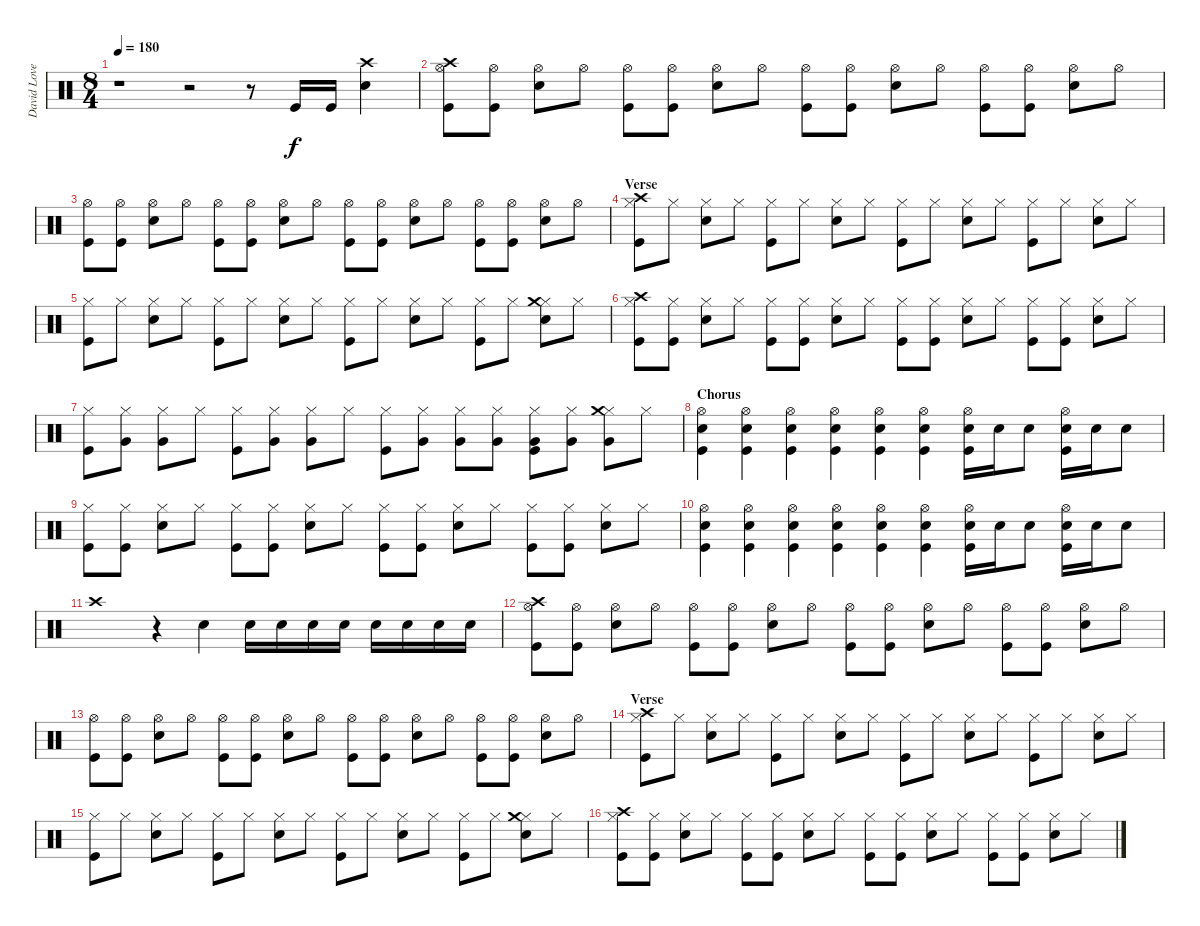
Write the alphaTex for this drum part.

\track ("David Lovering" "David Love") {instrument percussion}
\staff {score}
\articulation defaults
\ts (8 4)
\tempo 180
\clef neutral
\ks c
r.1{dy f} r.2 r.8 "Kick (hit)".16 "Kick (hit)".16 ("Crash high (hit)" "Snare (hit) 2").4 |
("Hi-Hat (open)" "Crash high (hit)" "Kick (hit)").8 ("Hi-Hat (open)" "Kick (hit)").8 ("Hi-Hat (open)" "Snare (hit) 2").8 "Hi-Hat (open)".8 ("Hi-Hat (open)" "Kick (hit)").8 ("Hi-Hat (open)" "Kick (hit)").8 ("Hi-Hat (open)" "Snare (hit) 2").8 "Hi-Hat (open)".8 ("Hi-Hat (open)" "Kick (hit)").8 ("Hi-Hat (open)" "Kick (hit)").8 ("Hi-Hat (open)" "Snare (hit) 2").8 "Hi-Hat (open)".8 ("Hi-Hat (open)" "Kick (hit)").8 ("Hi-Hat (open)" "Kick (hit)").8 ("Hi-Hat (open)" "Snare (hit) 2").8 "Hi-Hat (open)".8 |
("Hi-Hat (open)" "Kick (hit)").8 ("Hi-Hat (open)" "Kick (hit)").8 ("Hi-Hat (open)" "Snare (hit) 2").8 "Hi-Hat (open)".8 ("Hi-Hat (open)" "Kick (hit)").8 ("Hi-Hat (open)" "Kick (hit)").8 ("Hi-Hat (open)" "Snare (hit) 2").8 "Hi-Hat (open)".8 ("Hi-Hat (open)" "Kick (hit)").8 ("Hi-Hat (open)" "Kick (hit)").8 ("Hi-Hat (open)" "Snare (hit) 2").8 "Hi-Hat (open)".8 ("Hi-Hat (open)" "Kick (hit)").8 ("Hi-Hat (open)" "Kick (hit)").8 ("Hi-Hat (open)" "Snare (hit) 2").8 "Hi-Hat (open)".8 |
\section ("" "Verse")
("Hi-Hat (closed)" "Crash high (hit)" "Kick (hit)").8 "Hi-Hat (closed)".8 ("Hi-Hat (closed)" "Snare (hit) 2").8 "Hi-Hat (closed)".8 ("Hi-Hat (closed)" "Kick (hit)").8 "Hi-Hat (closed)".8 ("Hi-Hat (closed)" "Snare (hit) 2").8 "Hi-Hat (closed)".8 ("Hi-Hat (closed)" "Kick (hit)").8 "Hi-Hat (closed)".8 ("Hi-Hat (closed)" "Snare (hit) 2").8 "Hi-Hat (closed)".8 ("Hi-Hat (closed)" "Kick (hit)").8 "Hi-Hat (closed)".8 ("Hi-Hat (closed)" "Snare (hit) 2").8 "Hi-Hat (closed)".8 |
("Hi-Hat (closed)" "Kick (hit)").8 "Hi-Hat (closed)".8 ("Hi-Hat (closed)" "Snare (hit) 2").8 "Hi-Hat (closed)".8 ("Hi-Hat (closed)" "Kick (hit)").8 "Hi-Hat (closed)".8 ("Hi-Hat (closed)" "Snare (hit) 2").8 "Hi-Hat (closed)".8 ("Hi-Hat (closed)" "Kick (hit)").8 "Hi-Hat (closed)".8 ("Hi-Hat (closed)" "Snare (hit) 2").8 "Hi-Hat (closed)".8 ("Hi-Hat (closed)" "Kick (hit)").8 "Hi-Hat (closed)".8 ("Hi-Hat (closed)" "Crash medium (hit)" "Snare (hit) 2").8 "Hi-Hat (closed)".8 |
("Hi-Hat (closed)" "Crash high (hit)" "Kick (hit)").8 ("Hi-Hat (closed)" "Kick (hit)").8 ("Hi-Hat (closed)" "Snare (hit) 2").8 "Hi-Hat (closed)".8 ("Hi-Hat (closed)" "Kick (hit)").8 ("Hi-Hat (closed)" "Kick (hit)").8 ("Hi-Hat (closed)" "Snare (hit) 2").8 "Hi-Hat (closed)".8 ("Hi-Hat (closed)" "Kick (hit)").8 ("Hi-Hat (closed)" "Kick (hit)").8 ("Hi-Hat (closed)" "Snare (hit) 2").8 "Hi-Hat (closed)".8 ("Hi-Hat (closed)" "Kick (hit)").8 ("Hi-Hat (closed)" "Kick (hit)").8 ("Hi-Hat (closed)" "Snare (hit) 2").8 "Hi-Hat (closed)".8 |
("Hi-Hat (closed)" "Kick (hit)").8 ("Hi-Hat (closed)" "Very Low Tom (hit)").8 ("Hi-Hat (closed)" "Very Low Tom (hit)").8 "Hi-Hat (closed)".8 ("Hi-Hat (closed)" "Kick (hit)").8 ("Hi-Hat (closed)" "Very Low Tom (hit)").8 ("Hi-Hat (closed)" "Very Low Tom (hit)").8 "Hi-Hat (closed)".8 ("Hi-Hat (closed)" "Kick (hit)").8 ("Hi-Hat (closed)" "Very Low Tom (hit)").8 ("Hi-Hat (closed)" "Very Low Tom (hit)").8 ("Hi-Hat (closed)" "Very Low Tom (hit)").8 ("Hi-Hat (closed)" "Very Low Tom (hit)" "Kick (hit)").8 ("Hi-Hat (closed)" "Very Low Tom (hit)").8 ("Hi-Hat (closed)" "Crash medium (hit)" "Very Low Tom (hit)").8 "Hi-Hat (closed)".8 |
\section ("" "Chorus")
("Hi-Hat (open)" "Snare (hit) 2" "Kick (hit)").4 ("Hi-Hat (open)" "Snare (hit) 2" "Kick (hit)").4 ("Hi-Hat (open)" "Snare (hit) 2" "Kick (hit)").4 ("Hi-Hat (open)" "Snare (hit) 2" "Kick (hit)").4 ("Hi-Hat (open)" "Snare (hit) 2" "Kick (hit)").4 ("Hi-Hat (open)" "Snare (hit) 2" "Kick (hit)").4 ("Hi-Hat (open)" "Snare (hit) 2" "Kick (hit)").16 "Snare (hit) 2".16 "Snare (hit) 2".8 ("Hi-Hat (open)" "Snare (hit) 2" "Kick (hit)").16 "Snare (hit) 2".16 "Snare (hit) 2".8 |
("Hi-Hat (closed)" "Kick (hit)").8 ("Hi-Hat (closed)" "Kick (hit)").8 ("Hi-Hat (closed)" "Snare (hit) 2").8 "Hi-Hat (closed)".8 ("Hi-Hat (closed)" "Kick (hit)").8 ("Hi-Hat (closed)" "Kick (hit)").8 ("Hi-Hat (closed)" "Snare (hit) 2").8 "Hi-Hat (closed)".8 ("Hi-Hat (closed)" "Kick (hit)").8 ("Hi-Hat (closed)" "Kick (hit)").8 ("Hi-Hat (closed)" "Snare (hit) 2").8 "Hi-Hat (closed)".8 ("Hi-Hat (closed)" "Kick (hit)").8 ("Hi-Hat (closed)" "Kick (hit)").8 ("Hi-Hat (closed)" "Snare (hit) 2").8 "Hi-Hat (closed)".8 |
("Hi-Hat (open)" "Snare (hit) 2" "Kick (hit)").4 ("Hi-Hat (open)" "Snare (hit) 2" "Kick (hit)").4 ("Hi-Hat (open)" "Snare (hit) 2" "Kick (hit)").4 ("Hi-Hat (open)" "Snare (hit) 2" "Kick (hit)").4 ("Hi-Hat (open)" "Snare (hit) 2" "Kick (hit)").4 ("Hi-Hat (open)" "Snare (hit) 2" "Kick (hit)").4 ("Hi-Hat (open)" "Snare (hit) 2" "Kick (hit)").16 "Snare (hit) 2".16 "Snare (hit) 2".8 ("Hi-Hat (open)" "Snare (hit) 2" "Kick (hit)").16 "Snare (hit) 2".16 "Snare (hit) 2".8 |
"Crash high (hit)".1 r.4 "Snare (hit) 2".4 "Snare (hit) 2".16 "Snare (hit) 2".16 "Snare (hit) 2".16 "Snare (hit) 2".16 "Snare (hit) 2".16 "Snare (hit) 2".16 "Snare (hit) 2".16 "Snare (hit) 2".16 |
("Hi-Hat (open)" "Crash high (hit)" "Kick (hit)").8 ("Hi-Hat (open)" "Kick (hit)").8 ("Hi-Hat (open)" "Snare (hit) 2").8 "Hi-Hat (open)".8 ("Hi-Hat (open)" "Kick (hit)").8 ("Hi-Hat (open)" "Kick (hit)").8 ("Hi-Hat (open)" "Snare (hit) 2").8 "Hi-Hat (open)".8 ("Hi-Hat (open)" "Kick (hit)").8 ("Hi-Hat (open)" "Kick (hit)").8 ("Hi-Hat (open)" "Snare (hit) 2").8 "Hi-Hat (open)".8 ("Hi-Hat (open)" "Kick (hit)").8 ("Hi-Hat (open)" "Kick (hit)").8 ("Hi-Hat (open)" "Snare (hit) 2").8 "Hi-Hat (open)".8 |
("Hi-Hat (open)" "Kick (hit)").8 ("Hi-Hat (open)" "Kick (hit)").8 ("Hi-Hat (open)" "Snare (hit) 2").8 "Hi-Hat (open)".8 ("Hi-Hat (open)" "Kick (hit)").8 ("Hi-Hat (open)" "Kick (hit)").8 ("Hi-Hat (open)" "Snare (hit) 2").8 "Hi-Hat (open)".8 ("Hi-Hat (open)" "Kick (hit)").8 ("Hi-Hat (open)" "Kick (hit)").8 ("Hi-Hat (open)" "Snare (hit) 2").8 "Hi-Hat (open)".8 ("Hi-Hat (open)" "Kick (hit)").8 ("Hi-Hat (open)" "Kick (hit)").8 ("Hi-Hat (open)" "Snare (hit) 2").8 "Hi-Hat (open)".8 |
\section ("" "Verse")
("Hi-Hat (closed)" "Crash high (hit)" "Kick (hit)").8 "Hi-Hat (closed)".8 ("Hi-Hat (closed)" "Snare (hit) 2").8 "Hi-Hat (closed)".8 ("Hi-Hat (closed)" "Kick (hit)").8 "Hi-Hat (closed)".8 ("Hi-Hat (closed)" "Snare (hit) 2").8 "Hi-Hat (closed)".8 ("Hi-Hat (closed)" "Kick (hit)").8 "Hi-Hat (closed)".8 ("Hi-Hat (closed)" "Snare (hit) 2").8 "Hi-Hat (closed)".8 ("Hi-Hat (closed)" "Kick (hit)").8 "Hi-Hat (closed)".8 ("Hi-Hat (closed)" "Snare (hit) 2").8 "Hi-Hat (closed)".8 |
("Hi-Hat (closed)" "Kick (hit)").8 "Hi-Hat (closed)".8 ("Hi-Hat (closed)" "Snare (hit) 2").8 "Hi-Hat (closed)".8 ("Hi-Hat (closed)" "Kick (hit)").8 "Hi-Hat (closed)".8 ("Hi-Hat (closed)" "Snare (hit) 2").8 "Hi-Hat (closed)".8 ("Hi-Hat (closed)" "Kick (hit)").8 "Hi-Hat (closed)".8 ("Hi-Hat (closed)" "Snare (hit) 2").8 "Hi-Hat (closed)".8 ("Hi-Hat (closed)" "Kick (hit)").8 "Hi-Hat (closed)".8 ("Hi-Hat (closed)" "Crash medium (hit)" "Snare (hit) 2").8 "Hi-Hat (closed)".8 |
("Hi-Hat (closed)" "Crash high (hit)" "Kick (hit)").8 ("Hi-Hat (closed)" "Kick (hit)").8 ("Hi-Hat (closed)" "Snare (hit) 2").8 "Hi-Hat (closed)".8 ("Hi-Hat (closed)" "Kick (hit)").8 ("Hi-Hat (closed)" "Kick (hit)").8 ("Hi-Hat (closed)" "Snare (hit) 2").8 "Hi-Hat (closed)".8 ("Hi-Hat (closed)" "Kick (hit)").8 ("Hi-Hat (closed)" "Kick (hit)").8 ("Hi-Hat (closed)" "Snare (hit) 2").8 "Hi-Hat (closed)".8 ("Hi-Hat (closed)" "Kick (hit)").8 ("Hi-Hat (closed)" "Kick (hit)").8 ("Hi-Hat (closed)" "Snare (hit) 2").8 "Hi-Hat (closed)".8
